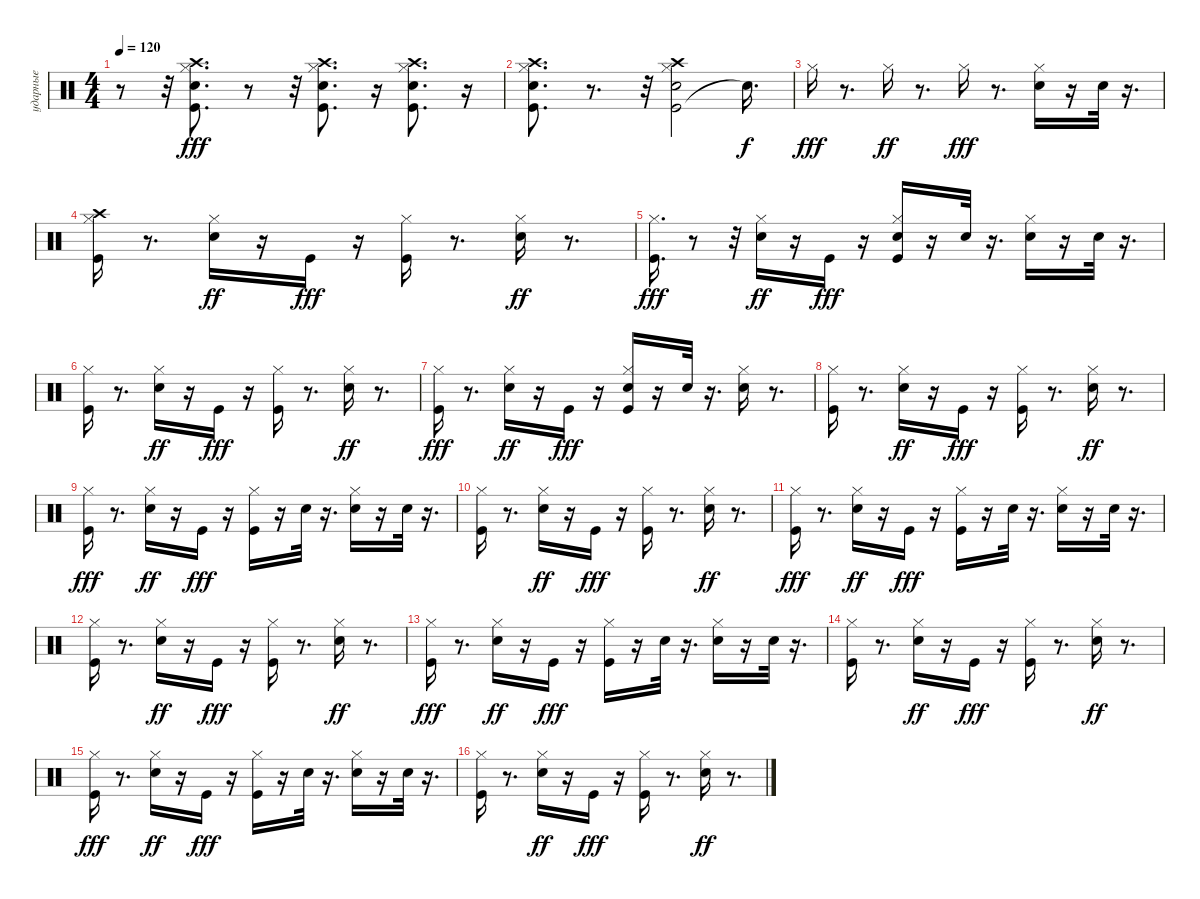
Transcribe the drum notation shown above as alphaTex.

\track ("ударные" "ударные") {instrument percussion}
\staff {score}
\articulation defaults
\ts (4 4)
\tempo 120
\clef neutral
\ks c
r.8{dy fff} r.32 ("Electric Snare (hit)" "Hi-Hat (closed)" "Kick (hit)" "Crash high (hit)").8{d} r.8 r.32 ("Electric Snare (hit)" "Hi-Hat (closed)" "Kick (hit)" "Crash high (hit)").8{d} r.16 ("Electric Snare (hit)" "Hi-Hat (closed)" "Kick (hit)" "Crash high (hit)").8{d} r.16 |
("Electric Snare (hit)" "Hi-Hat (closed)" "Kick (hit)" "Crash high (hit)").8{d} r.8{d} r.32 ("Kick (hit)" "Electric Snare (hit)" "Hi-Hat (closed)" "Crash high (hit)").2 "Snare (hit)"{t}.16{d dy f} |
"Hi-Hat (closed)".16{dy fff} r.8{d} "Hi-Hat (closed)".16{dy ff} r.8{d} "Hi-Hat (closed)".16{dy fff} r.8{d} ("Electric Snare (hit)" "Hi-Hat (closed)").16 r.16 "Electric Snare (hit)".32 r.16{d} |
("Crash high (hit)" "Hi-Hat (closed)" "Kick (hit)").16 r.8{d} ("Electric Snare (hit)" "Hi-Hat (closed)").16{dy ff} r.16 "Kick (hit)".16{dy fff} r.16 ("Kick (hit)" "Hi-Hat (closed)").16 r.8{d} ("Electric Snare (hit)" "Hi-Hat (closed)").16{dy ff} r.8{d} |
("Kick (hit)" "Hi-Hat (closed)").16{d dy fff} r.8 r.32 ("Electric Snare (hit)" "Hi-Hat (closed)").16{dy ff} r.16 "Kick (hit)".16{dy fff} r.16 ("Electric Snare (hit)" "Kick (hit)" "Hi-Hat (closed)").16 r.16 "Electric Snare (hit)".32 r.16{d} ("Electric Snare (hit)" "Hi-Hat (closed)").16 r.16 "Electric Snare (hit)".32 r.16{d} |
("Hi-Hat (closed)" "Kick (hit)").16 r.8{d} ("Electric Snare (hit)" "Hi-Hat (closed)").16{dy ff} r.16 "Kick (hit)".16{dy fff} r.16 ("Kick (hit)" "Hi-Hat (closed)").16 r.8{d} ("Electric Snare (hit)" "Hi-Hat (closed)").16{dy ff} r.8{d} |
("Hi-Hat (closed)" "Kick (hit)").16{dy fff} r.8{d} ("Electric Snare (hit)" "Hi-Hat (closed)").16{dy ff} r.16 "Kick (hit)".16{dy fff} r.16 ("Electric Snare (hit)" "Kick (hit)" "Hi-Hat (closed)").16 r.16 "Electric Snare (hit)".32 r.16{d} ("Electric Snare (hit)" "Hi-Hat (closed)").16 r.8{d} |
("Hi-Hat (closed)" "Kick (hit)").16 r.8{d} ("Electric Snare (hit)" "Hi-Hat (closed)").16{dy ff} r.16 "Kick (hit)".16{dy fff} r.16 ("Kick (hit)" "Hi-Hat (closed)").16 r.8{d} ("Electric Snare (hit)" "Hi-Hat (closed)").16{dy ff} r.8{d} |
("Hi-Hat (closed)" "Kick (hit)").16{dy fff} r.8{d} ("Electric Snare (hit)" "Hi-Hat (closed)").16{dy ff} r.16 "Kick (hit)".16{dy fff} r.16 ("Kick (hit)" "Hi-Hat (closed)").16 r.16 "Electric Snare (hit)".32 r.16{d} ("Electric Snare (hit)" "Hi-Hat (closed)").16 r.16 "Electric Snare (hit)".32 r.16{d} |
("Hi-Hat (closed)" "Kick (hit)").16 r.8{d} ("Electric Snare (hit)" "Hi-Hat (closed)").16{dy ff} r.16 "Kick (hit)".16{dy fff} r.16 ("Kick (hit)" "Hi-Hat (closed)").16 r.8{d} ("Electric Snare (hit)" "Hi-Hat (closed)").16{dy ff} r.8{d} |
("Hi-Hat (closed)" "Kick (hit)").16{dy fff} r.8{d} ("Electric Snare (hit)" "Hi-Hat (closed)").16{dy ff} r.16 "Kick (hit)".16{dy fff} r.16 ("Kick (hit)" "Hi-Hat (closed)").16 r.16 "Electric Snare (hit)".32 r.16{d} ("Electric Snare (hit)" "Hi-Hat (closed)").16 r.16 "Electric Snare (hit)".32 r.16{d} |
("Hi-Hat (closed)" "Kick (hit)").16 r.8{d} ("Electric Snare (hit)" "Hi-Hat (closed)").16{dy ff} r.16 "Kick (hit)".16{dy fff} r.16 ("Kick (hit)" "Hi-Hat (closed)").16 r.8{d} ("Electric Snare (hit)" "Hi-Hat (closed)").16{dy ff} r.8{d} |
("Hi-Hat (closed)" "Kick (hit)").16{dy fff} r.8{d} ("Electric Snare (hit)" "Hi-Hat (closed)").16{dy ff} r.16 "Kick (hit)".16{dy fff} r.16 ("Kick (hit)" "Hi-Hat (closed)").16 r.16 "Electric Snare (hit)".32 r.16{d} ("Electric Snare (hit)" "Hi-Hat (closed)").16 r.16 "Electric Snare (hit)".32 r.16{d} |
("Hi-Hat (closed)" "Kick (hit)").16 r.8{d} ("Electric Snare (hit)" "Hi-Hat (closed)").16{dy ff} r.16 "Kick (hit)".16{dy fff} r.16 ("Kick (hit)" "Hi-Hat (closed)").16 r.8{d} ("Electric Snare (hit)" "Hi-Hat (closed)").16{dy ff} r.8{d} |
("Hi-Hat (closed)" "Kick (hit)").16{dy fff} r.8{d} ("Electric Snare (hit)" "Hi-Hat (closed)").16{dy ff} r.16 "Kick (hit)".16{dy fff} r.16 ("Kick (hit)" "Hi-Hat (closed)").16 r.16 "Electric Snare (hit)".32 r.16{d} ("Electric Snare (hit)" "Hi-Hat (closed)").16 r.16 "Electric Snare (hit)".32 r.16{d} |
("Hi-Hat (closed)" "Kick (hit)").16 r.8{d} ("Electric Snare (hit)" "Hi-Hat (closed)").16{dy ff} r.16 "Kick (hit)".16{dy fff} r.16 ("Kick (hit)" "Hi-Hat (closed)").16 r.8{d} ("Electric Snare (hit)" "Hi-Hat (closed)").16{dy ff} r.8{d}
